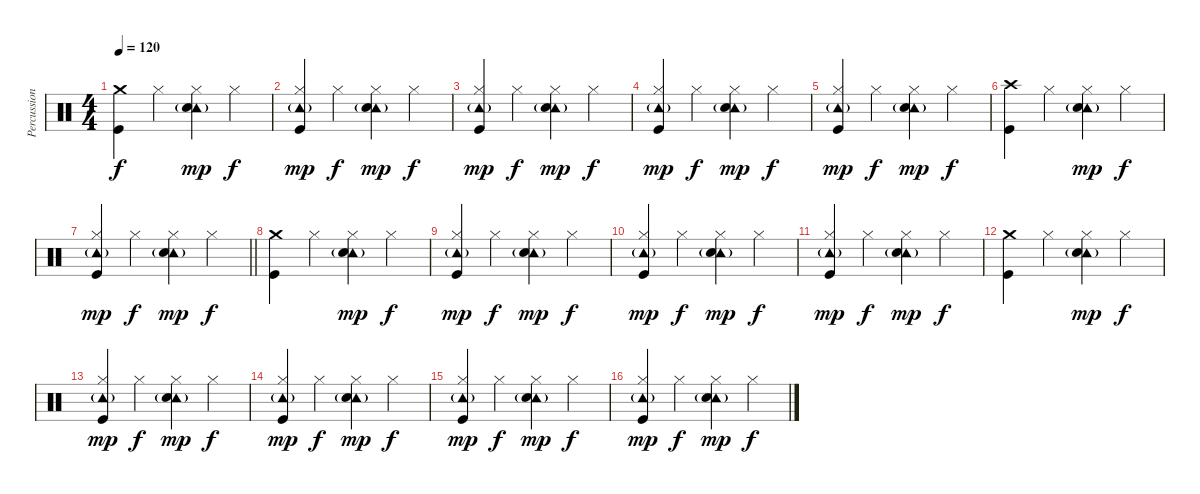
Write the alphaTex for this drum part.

\track ("Percussioni" "Percussion") {instrument percussion}
\staff {score}
\articulation defaults
\ts (4 4)
\tempo 120
\clef neutral
\ks c
("Crash medium (hit)" "Kick (hit)").4{dy f} "Hi-Hat (closed)".4 ("Tambourine (hit)"{g} "Hi-Hat (closed)" "Snare (hit) 2").4{dy mp} "Hi-Hat (closed)".4{dy f} |
("Tambourine (hit)"{g} "Hi-Hat (closed)" "Kick (hit)").4{dy mp} "Hi-Hat (closed)".4{dy f} ("Tambourine (hit)"{g} "Hi-Hat (closed)" "Snare (hit) 2").4{dy mp} "Hi-Hat (closed)".4{dy f} |
("Tambourine (hit)"{g} "Hi-Hat (closed)" "Kick (hit)").4{dy mp} "Hi-Hat (closed)".4{dy f} ("Tambourine (hit)"{g} "Hi-Hat (closed)" "Snare (hit) 2").4{dy mp} "Hi-Hat (closed)".4{dy f} |
("Tambourine (hit)"{g} "Hi-Hat (closed)" "Kick (hit)").4{dy mp} "Hi-Hat (closed)".4{dy f} ("Tambourine (hit)"{g} "Hi-Hat (closed)" "Snare (hit) 2").4{dy mp} "Hi-Hat (closed)".4{dy f} |
("Tambourine (hit)"{g} "Hi-Hat (closed)" "Kick (hit)").4{dy mp} "Hi-Hat (closed)".4{dy f} ("Tambourine (hit)"{g} "Hi-Hat (closed)" "Snare (hit) 2").4{dy mp} "Hi-Hat (closed)".4{dy f} |
("Crash high (hit)" "Kick (hit)").4 "Hi-Hat (closed)".4 ("Tambourine (hit)"{g} "Hi-Hat (closed)" "Snare (hit) 2").4{dy mp} "Hi-Hat (closed)".4{dy f} |
\barLineRight lightlight
("Tambourine (hit)"{g} "Hi-Hat (closed)" "Kick (hit)").4{dy mp} "Hi-Hat (closed)".4{dy f} ("Tambourine (hit)"{g} "Hi-Hat (closed)" "Snare (hit) 2").4{dy mp} "Hi-Hat (closed)".4{dy f} |
("Crash medium (hit)" "Kick (hit)").4 "Hi-Hat (closed)".4 ("Tambourine (hit)"{g} "Hi-Hat (closed)" "Snare (hit) 2").4{dy mp} "Hi-Hat (closed)".4{dy f} |
("Tambourine (hit)"{g} "Hi-Hat (closed)" "Kick (hit)").4{dy mp} "Hi-Hat (closed)".4{dy f} ("Tambourine (hit)"{g} "Hi-Hat (closed)" "Snare (hit) 2").4{dy mp} "Hi-Hat (closed)".4{dy f} |
("Tambourine (hit)"{g} "Hi-Hat (closed)" "Kick (hit)").4{dy mp} "Hi-Hat (closed)".4{dy f} ("Tambourine (hit)"{g} "Hi-Hat (closed)" "Snare (hit) 2").4{dy mp} "Hi-Hat (closed)".4{dy f} |
("Tambourine (hit)"{g} "Hi-Hat (closed)" "Kick (hit)").4{dy mp} "Hi-Hat (closed)".4{dy f} ("Tambourine (hit)"{g} "Hi-Hat (closed)" "Snare (hit) 2").4{dy mp} "Hi-Hat (closed)".4{dy f} |
("Crash medium (hit)" "Kick (hit)").4 "Hi-Hat (closed)".4 ("Tambourine (hit)"{g} "Hi-Hat (closed)" "Snare (hit) 2").4{dy mp} "Hi-Hat (closed)".4{dy f} |
("Tambourine (hit)"{g} "Hi-Hat (closed)" "Kick (hit)").4{dy mp} "Hi-Hat (closed)".4{dy f} ("Tambourine (hit)"{g} "Hi-Hat (closed)" "Snare (hit) 2").4{dy mp} "Hi-Hat (closed)".4{dy f} |
("Tambourine (hit)"{g} "Hi-Hat (closed)" "Kick (hit)").4{dy mp} "Hi-Hat (closed)".4{dy f} ("Tambourine (hit)"{g} "Hi-Hat (closed)" "Snare (hit) 2").4{dy mp} "Hi-Hat (closed)".4{dy f} |
("Tambourine (hit)"{g} "Hi-Hat (closed)" "Kick (hit)").4{dy mp} "Hi-Hat (closed)".4{dy f} ("Tambourine (hit)"{g} "Hi-Hat (closed)" "Snare (hit) 2").4{dy mp} "Hi-Hat (closed)".4{dy f} |
("Tambourine (hit)"{g} "Hi-Hat (closed)" "Kick (hit)").4{dy mp} "Hi-Hat (closed)".4{dy f} ("Tambourine (hit)"{g} "Hi-Hat (closed)" "Snare (hit) 2").4{dy mp} "Hi-Hat (closed)".4{dy f}
